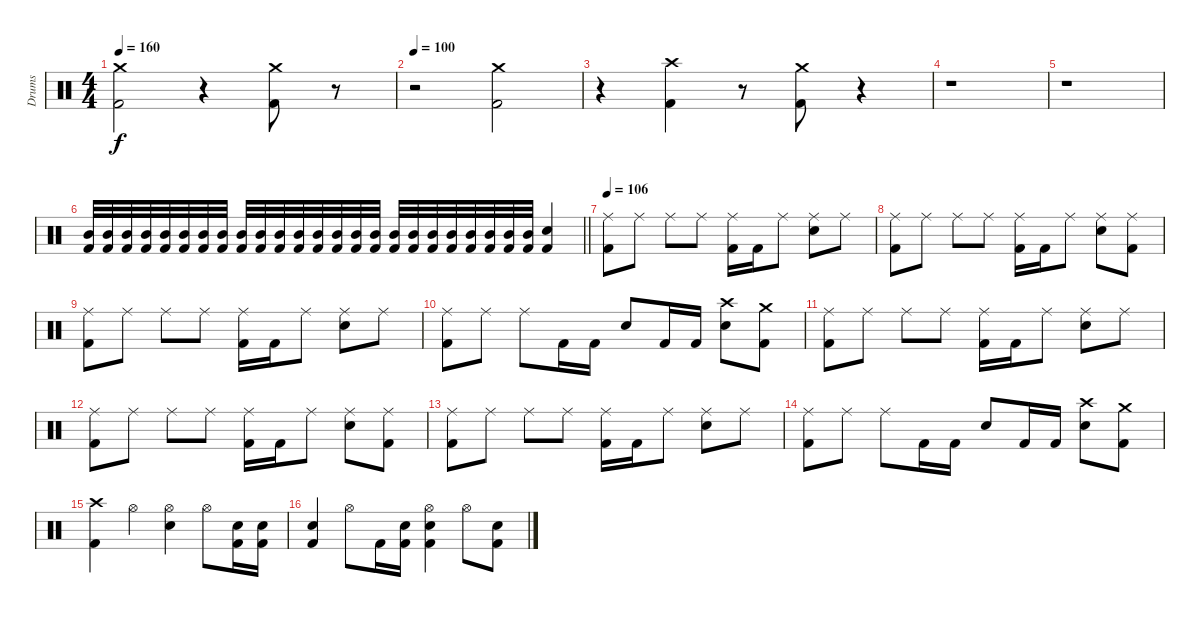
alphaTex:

\track ("Drums" "Drums") {instrument percussion}
\staff {score}
\articulation defaults
\ts (4 4)
\tempo 160
\clef neutral
\ks c
("Crash medium (hit)" "Kick (hit) 2").2{dy f} r.4 ("Crash medium (hit)" "Kick (hit) 2").8 r.8 |
\tempo 100
r.2 ("Crash medium (hit)" "Kick (hit) 2").2 |
r.4 ("Crash high (hit)" "Kick (hit) 2").4 r.8 ("Crash medium (hit)" "Kick (hit) 2").8 r.4 |
r.1 |
r.1 |
\barLineRight lightlight
("Mid Tom (hit)" "Kick (hit) 2").32{volume 0} ("Mid Tom (hit)" "Kick (hit) 2").32{volume 15} ("Mid Tom (hit)" "Kick (hit) 2").32 ("Mid Tom (hit)" "Kick (hit) 2").32 ("Mid Tom (hit)" "Kick (hit) 2").32 ("Mid Tom (hit)" "Kick (hit) 2").32 ("Mid Tom (hit)" "Kick (hit) 2").32 ("Mid Tom (hit)" "Kick (hit) 2").32 ("Mid Tom (hit)" "Kick (hit) 2").32 ("Mid Tom (hit)" "Kick (hit) 2").32 ("Mid Tom (hit)" "Kick (hit) 2").32 ("Mid Tom (hit)" "Kick (hit) 2").32 ("Mid Tom (hit)" "Kick (hit) 2").32 ("Mid Tom (hit)" "Kick (hit) 2").32 ("Mid Tom (hit)" "Kick (hit) 2").32 ("Mid Tom (hit)" "Kick (hit) 2").32 ("Mid Tom (hit)" "Kick (hit) 2").32 ("Mid Tom (hit)" "Kick (hit) 2").32 ("Mid Tom (hit)" "Kick (hit) 2").32 ("Mid Tom (hit)" "Kick (hit) 2").32 ("Mid Tom (hit)" "Kick (hit) 2").32 ("Mid Tom (hit)" "Kick (hit) 2").32 ("Mid Tom (hit)" "Kick (hit) 2").32 ("Mid Tom (hit)" "Kick (hit) 2").32 ("Electric Snare (hit)" "Kick (hit) 2").4 |
\tempo 106
("Ride (middle)" "Kick (hit) 2").8 "Ride (middle)".8 "Ride (middle)".8 "Ride (middle)".8 ("Ride (middle)" "Kick (hit) 2").16 "Kick (hit) 2".16 "Ride (middle)".8 ("Ride (middle)" "Electric Snare (hit)").8 "Ride (middle)".8 |
("Ride (middle)" "Kick (hit) 2").8 "Ride (middle)".8 "Ride (middle)".8 "Ride (middle)".8 ("Ride (middle)" "Kick (hit) 2").16 "Kick (hit) 2".16 "Ride (middle)".8 ("Ride (middle)" "Electric Snare (hit)").8 ("Ride (middle)" "Kick (hit) 2").8 |
("Ride (middle)" "Kick (hit) 2").8 "Ride (middle)".8 "Ride (middle)".8 "Ride (middle)".8 ("Ride (middle)" "Kick (hit) 2").16 "Kick (hit) 2".16 "Ride (middle)".8 ("Ride (middle)" "Electric Snare (hit)").8 "Ride (middle)".8 |
("Ride (middle)" "Kick (hit) 2").8 "Ride (middle)".8 "Ride (middle)".8 "Kick (hit) 2".16 "Kick (hit) 2".16 "Electric Snare (hit)".8 "Kick (hit) 2".16 "Kick (hit) 2".16 ("Crash high (hit)" "Electric Snare (hit)").8 ("Crash medium (hit)" "Kick (hit) 2").8 |
("Ride (middle)" "Kick (hit) 2").8 "Ride (middle)".8 "Ride (middle)".8 "Ride (middle)".8 ("Ride (middle)" "Kick (hit) 2").16 "Kick (hit) 2".16 "Ride (middle)".8 ("Ride (middle)" "Electric Snare (hit)").8 "Ride (middle)".8 |
("Ride (middle)" "Kick (hit) 2").8 "Ride (middle)".8 "Ride (middle)".8 "Ride (middle)".8 ("Ride (middle)" "Kick (hit) 2").16 "Kick (hit) 2".16 "Ride (middle)".8 ("Ride (middle)" "Electric Snare (hit)").8 ("Ride (middle)" "Kick (hit) 2").8 |
("Ride (middle)" "Kick (hit) 2").8 "Ride (middle)".8 "Ride (middle)".8 "Ride (middle)".8 ("Ride (middle)" "Kick (hit) 2").16 "Kick (hit) 2".16 "Ride (middle)".8 ("Ride (middle)" "Electric Snare (hit)").8 "Ride (middle)".8 |
("Ride (middle)" "Kick (hit) 2").8 "Ride (middle)".8 "Ride (middle)".8 "Kick (hit) 2".16 "Kick (hit) 2".16 "Electric Snare (hit)".8 "Kick (hit) 2".16 "Kick (hit) 2".16 ("Crash high (hit)" "Electric Snare (hit)").8 ("Crash medium (hit)" "Kick (hit) 2").8 |
("Crash high (hit)" "Kick (hit) 2").4 "Hi-Hat (open)".4 ("Hi-Hat (open)" "Electric Snare (hit)").4 "Hi-Hat (open)".8 ("Electric Snare (hit)" "Kick (hit) 2").16 ("Electric Snare (hit)" "Kick (hit) 2").16 |
("Electric Snare (hit)" "Kick (hit) 2").4 "Hi-Hat (open)".8 "Kick (hit) 2".16 ("Electric Snare (hit)" "Kick (hit) 2").16 ("Hi-Hat (open)" "Electric Snare (hit)" "Kick (hit) 2").4 "Hi-Hat (open)".8 ("Electric Snare (hit)" "Kick (hit) 2").8
